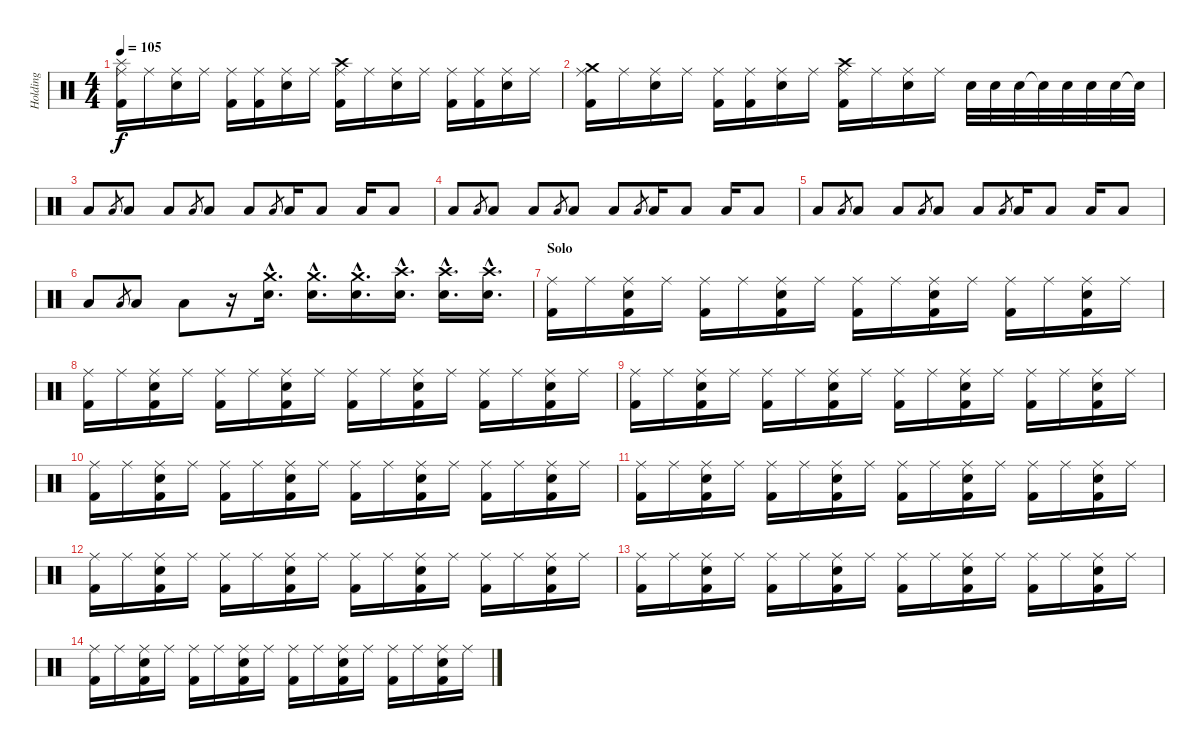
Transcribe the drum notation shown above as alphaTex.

\track ("Holding" "Holding") {instrument percussion}
\staff {score}
\articulation defaults
\ts (4 4)
\tempo 105
\clef neutral
\ks c
("Splash (hit)" "Ride (middle)" "Kick (hit) 2").16{dy f} "Ride (middle)".16 ("Ride (middle)" "Electric Snare (hit)").16 "Ride (middle)".16 ("Ride (middle)" "Kick (hit) 2").16 ("Ride (middle)" "Kick (hit) 2").16 ("Ride (middle)" "Electric Snare (hit)").16 "Ride (middle)".16 ("Crash high (hit)" "Ride (middle)" "Kick (hit) 2").16 "Ride (middle)".16 ("Ride (middle)" "Electric Snare (hit)").16 "Ride (middle)".16 ("Ride (middle)" "Kick (hit) 2").16 ("Ride (middle)" "Kick (hit) 2").16 ("Ride (middle)" "Electric Snare (hit)").16 "Ride (middle)".16 |
("Crash medium (hit)" "Ride (middle)" "Kick (hit) 2").16 "Ride (middle)".16 ("Ride (middle)" "Electric Snare (hit)").16 "Ride (middle)".16 ("Ride (middle)" "Kick (hit) 2").16 ("Ride (middle)" "Kick (hit) 2").16 ("Ride (middle)" "Electric Snare (hit)").16 "Ride (middle)".16 ("Crash high (hit)" "Ride (middle)" "Kick (hit) 2").16 "Ride (middle)".16 ("Ride (middle)" "Electric Snare (hit)").16 "Ride (middle)".16 "Electric Snare (hit)".32 "Electric Snare (hit)".32 "Electric Snare (hit)".32 "Electric Snare (hit)"{t}.32 "Electric Snare (hit)".32 "Electric Snare (hit)".32 "Electric Snare (hit)".32 "Electric Snare (hit)"{t}.32 |
"Low Floor Tom (hit)".8 "Low Floor Tom (hit)".8{gr} "Low Floor Tom (hit)".8 "Low Floor Tom (hit)".8 "Low Floor Tom (hit)".8{gr} "Low Floor Tom (hit)".8 "Low Floor Tom (hit)".8 "Low Floor Tom (hit)".8{gr} "Low Floor Tom (hit)".16 "Low Floor Tom (hit)".8 "Low Floor Tom (hit)".16 "Low Floor Tom (hit)".8 |
"Low Floor Tom (hit)".8 "Low Floor Tom (hit)".8{gr} "Low Floor Tom (hit)".8 "Low Floor Tom (hit)".8 "Low Floor Tom (hit)".8{gr} "Low Floor Tom (hit)".8 "Low Floor Tom (hit)".8 "Low Floor Tom (hit)".8{gr} "Low Floor Tom (hit)".16 "Low Floor Tom (hit)".8 "Low Floor Tom (hit)".16 "Low Floor Tom (hit)".8 |
"Low Floor Tom (hit)".8 "Low Floor Tom (hit)".8{gr} "Low Floor Tom (hit)".8 "Low Floor Tom (hit)".8 "Low Floor Tom (hit)".8{gr} "Low Floor Tom (hit)".8 "Low Floor Tom (hit)".8 "Low Floor Tom (hit)".8{gr} "Low Floor Tom (hit)".16 "Low Floor Tom (hit)".8 "Low Floor Tom (hit)".16 "Low Floor Tom (hit)".8 |
"Low Floor Tom (hit)".8 "Low Floor Tom (hit)".8{gr} "Low Floor Tom (hit)".8 "Low Floor Tom (hit)".8 r.16 ("Crash medium (hit)"{hac} "Electric Snare (hit)"{hac}).16{d} ("Crash medium (hit)"{hac} "Electric Snare (hit)"{hac}).16{d} ("Crash medium (hit)"{hac} "Electric Snare (hit)"{hac}).16{d} ("Crash high (hit)"{hac} "Electric Snare (hit)"{hac}).16{d} ("Crash high (hit)"{hac} "Electric Snare (hit)"{hac}).16{d} ("Crash high (hit)"{hac} "Electric Snare (hit)"{hac}).16{d} |
\section ("" "Solo")
("Ride (middle)" "Kick (hit) 2").16 "Ride (middle)".16 ("Ride (middle)" "Electric Snare (hit)" "Kick (hit) 2").16 "Ride (middle)".16 ("Ride (middle)" "Kick (hit) 2").16 "Ride (middle)".16 ("Ride (middle)" "Electric Snare (hit)" "Kick (hit) 2").16 "Ride (middle)".16 ("Ride (middle)" "Kick (hit) 2").16 "Ride (middle)".16 ("Ride (middle)" "Electric Snare (hit)" "Kick (hit) 2").16 "Ride (middle)".16 ("Ride (middle)" "Kick (hit) 2").16 "Ride (middle)".16 ("Ride (middle)" "Electric Snare (hit)" "Kick (hit) 2").16 "Ride (middle)".16 |
("Ride (middle)" "Kick (hit) 2").16 "Ride (middle)".16 ("Ride (middle)" "Electric Snare (hit)" "Kick (hit) 2").16 "Ride (middle)".16 ("Ride (middle)" "Kick (hit) 2").16 "Ride (middle)".16 ("Ride (middle)" "Electric Snare (hit)" "Kick (hit) 2").16 "Ride (middle)".16 ("Ride (middle)" "Kick (hit) 2").16 "Ride (middle)".16 ("Ride (middle)" "Electric Snare (hit)" "Kick (hit) 2").16 "Ride (middle)".16 ("Ride (middle)" "Kick (hit) 2").16 "Ride (middle)".16 ("Ride (middle)" "Electric Snare (hit)" "Kick (hit) 2").16 "Ride (middle)".16 |
("Ride (middle)" "Kick (hit) 2").16 "Ride (middle)".16 ("Ride (middle)" "Electric Snare (hit)" "Kick (hit) 2").16 "Ride (middle)".16 ("Ride (middle)" "Kick (hit) 2").16 "Ride (middle)".16 ("Ride (middle)" "Electric Snare (hit)" "Kick (hit) 2").16 "Ride (middle)".16 ("Ride (middle)" "Kick (hit) 2").16 "Ride (middle)".16 ("Ride (middle)" "Electric Snare (hit)" "Kick (hit) 2").16 "Ride (middle)".16 ("Ride (middle)" "Kick (hit) 2").16 "Ride (middle)".16 ("Ride (middle)" "Electric Snare (hit)" "Kick (hit) 2").16 "Ride (middle)".16 |
("Ride (middle)" "Kick (hit) 2").16 "Ride (middle)".16 ("Ride (middle)" "Electric Snare (hit)" "Kick (hit) 2").16 "Ride (middle)".16 ("Ride (middle)" "Kick (hit) 2").16 "Ride (middle)".16 ("Ride (middle)" "Electric Snare (hit)" "Kick (hit) 2").16 "Ride (middle)".16 ("Ride (middle)" "Kick (hit) 2").16 "Ride (middle)".16 ("Ride (middle)" "Electric Snare (hit)" "Kick (hit) 2").16 "Ride (middle)".16 ("Ride (middle)" "Kick (hit) 2").16 "Ride (middle)".16 ("Ride (middle)" "Electric Snare (hit)" "Kick (hit) 2").16 "Ride (middle)".16 |
("Ride (middle)" "Kick (hit) 2").16 "Ride (middle)".16 ("Ride (middle)" "Electric Snare (hit)" "Kick (hit) 2").16 "Ride (middle)".16 ("Ride (middle)" "Kick (hit) 2").16 "Ride (middle)".16 ("Ride (middle)" "Electric Snare (hit)" "Kick (hit) 2").16 "Ride (middle)".16 ("Ride (middle)" "Kick (hit) 2").16 "Ride (middle)".16 ("Ride (middle)" "Electric Snare (hit)" "Kick (hit) 2").16 "Ride (middle)".16 ("Ride (middle)" "Kick (hit) 2").16 "Ride (middle)".16 ("Ride (middle)" "Electric Snare (hit)" "Kick (hit) 2").16 "Ride (middle)".16 |
("Ride (middle)" "Kick (hit) 2").16 "Ride (middle)".16 ("Ride (middle)" "Electric Snare (hit)" "Kick (hit) 2").16 "Ride (middle)".16 ("Ride (middle)" "Kick (hit) 2").16 "Ride (middle)".16 ("Ride (middle)" "Electric Snare (hit)" "Kick (hit) 2").16 "Ride (middle)".16 ("Ride (middle)" "Kick (hit) 2").16 "Ride (middle)".16 ("Ride (middle)" "Electric Snare (hit)" "Kick (hit) 2").16 "Ride (middle)".16 ("Ride (middle)" "Kick (hit) 2").16 "Ride (middle)".16 ("Ride (middle)" "Electric Snare (hit)" "Kick (hit) 2").16 "Ride (middle)".16 |
("Ride (middle)" "Kick (hit) 2").16 "Ride (middle)".16 ("Ride (middle)" "Electric Snare (hit)" "Kick (hit) 2").16 "Ride (middle)".16 ("Ride (middle)" "Kick (hit) 2").16 "Ride (middle)".16 ("Ride (middle)" "Electric Snare (hit)" "Kick (hit) 2").16 "Ride (middle)".16 ("Ride (middle)" "Kick (hit) 2").16 "Ride (middle)".16 ("Ride (middle)" "Electric Snare (hit)" "Kick (hit) 2").16 "Ride (middle)".16 ("Ride (middle)" "Kick (hit) 2").16 "Ride (middle)".16 ("Ride (middle)" "Electric Snare (hit)" "Kick (hit) 2").16 "Ride (middle)".16 |
("Ride (middle)" "Kick (hit) 2").16 "Ride (middle)".16 ("Ride (middle)" "Electric Snare (hit)" "Kick (hit) 2").16 "Ride (middle)".16 ("Ride (middle)" "Kick (hit) 2").16 "Ride (middle)".16 ("Ride (middle)" "Electric Snare (hit)" "Kick (hit) 2").16 "Ride (middle)".16 ("Ride (middle)" "Kick (hit) 2").16 "Ride (middle)".16 ("Ride (middle)" "Electric Snare (hit)" "Kick (hit) 2").16 "Ride (middle)".16 ("Ride (middle)" "Kick (hit) 2").16 "Ride (middle)".16 ("Ride (middle)" "Electric Snare (hit)" "Kick (hit) 2").16 "Ride (middle)".16
